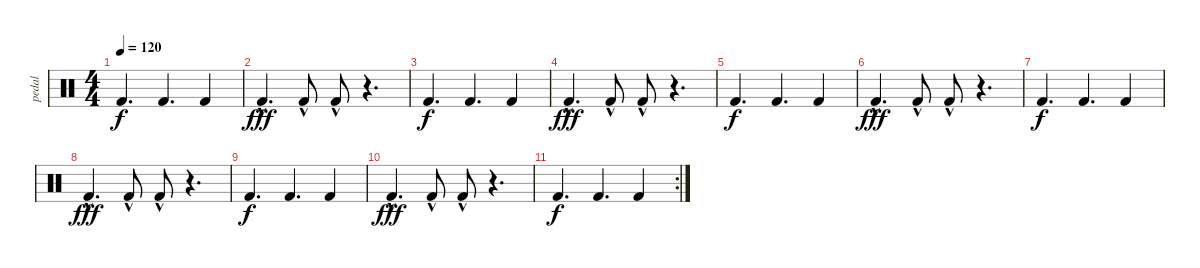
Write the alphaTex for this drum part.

\track ("pedal" "pedal") {instrument percussion}
\staff {score}
\articulation defaults
\ts (4 4)
\tempo 120
\clef neutral
\ks c "Kick (hit) 2".4{d dy f} "Kick (hit) 2".4{d} "Kick (hit) 2".4
|
"Kick (hit) 2"{hac}.4{d dy fff} "Kick (hit) 2"{hac}.8 "Kick (hit) 2"{hac}.8 r.4{d} |
"Kick (hit) 2".4{d dy f} "Kick (hit) 2".4{d} "Kick (hit) 2".4 |
"Kick (hit) 2"{hac}.4{d dy fff} "Kick (hit) 2"{hac}.8 "Kick (hit) 2"{hac}.8 r.4{d} |
"Kick (hit) 2".4{d dy f} "Kick (hit) 2".4{d} "Kick (hit) 2".4 |
"Kick (hit) 2"{hac}.4{d dy fff} "Kick (hit) 2"{hac}.8 "Kick (hit) 2"{hac}.8 r.4{d} |
"Kick (hit) 2".4{d dy f} "Kick (hit) 2".4{d} "Kick (hit) 2".4 |
"Kick (hit) 2"{hac}.4{d dy fff} "Kick (hit) 2"{hac}.8 "Kick (hit) 2"{hac}.8 r.4{d} |
"Kick (hit) 2".4{d dy f} "Kick (hit) 2".4{d} "Kick (hit) 2".4 |
"Kick (hit) 2"{hac}.4{d dy fff} "Kick (hit) 2"{hac}.8 "Kick (hit) 2"{hac}.8 r.4{d} |
\rc 2 "Kick (hit) 2".4{d dy f} "Kick (hit) 2".4{d} "Kick (hit) 2".4
